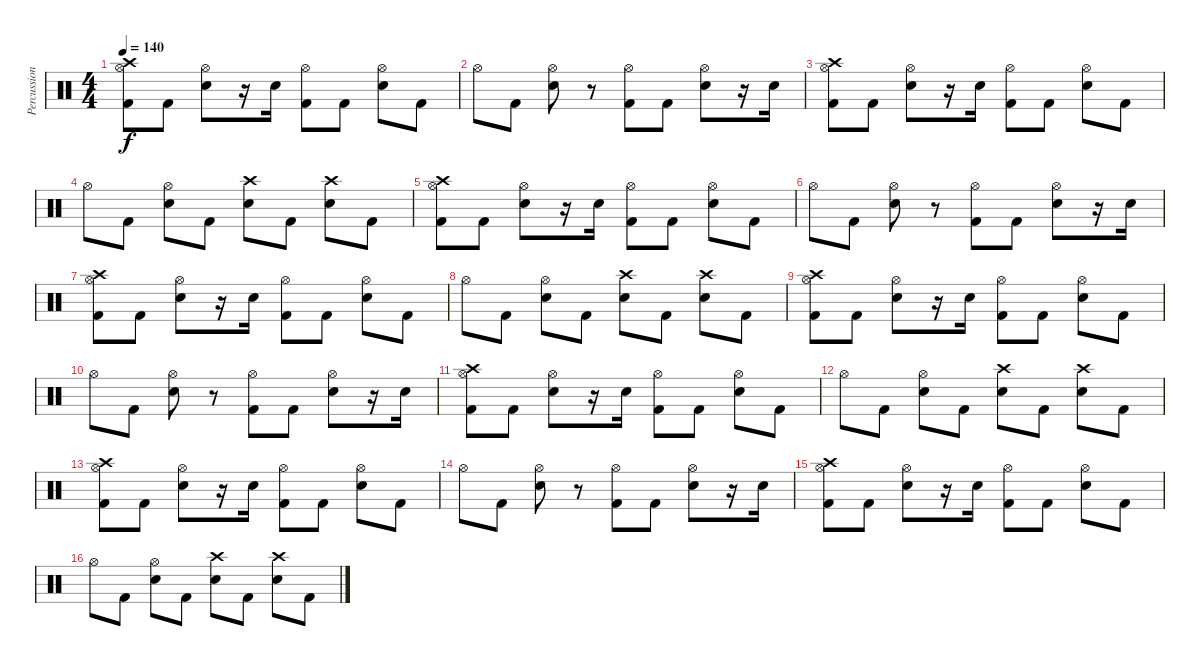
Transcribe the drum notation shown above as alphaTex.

\track ("Percussion" "Percussion") {instrument percussion}
\staff {score}
\articulation defaults
\ts (4 4)
\tempo 140
\clef neutral
\ks c
("Kick (hit) 2" "Hi-Hat (open)" "Crash high (hit)").8{dy f} "Kick (hit) 2".8 ("Snare (hit) 2" "Hi-Hat (open)").8 r.16 "Snare (hit) 2".16 ("Kick (hit) 2" "Hi-Hat (open)").8 "Kick (hit) 2".8 ("Snare (hit) 2" "Hi-Hat (open)").8 "Kick (hit) 2".8 |
"Hi-Hat (open)".8 "Kick (hit) 2".8 ("Snare (hit) 2" "Hi-Hat (open)").8 r.8 ("Kick (hit) 2" "Hi-Hat (open)").8 "Kick (hit) 2".8 ("Snare (hit) 2" "Hi-Hat (open)").8 r.16 "Snare (hit) 2".16 |
("Kick (hit) 2" "Hi-Hat (open)" "Crash high (hit)").8 "Kick (hit) 2".8 ("Snare (hit) 2" "Hi-Hat (open)").8 r.16 "Snare (hit) 2".16 ("Kick (hit) 2" "Hi-Hat (open)").8 "Kick (hit) 2".8 ("Snare (hit) 2" "Hi-Hat (open)").8 "Kick (hit) 2".8 |
"Hi-Hat (open)".8 "Kick (hit) 2".8 ("Snare (hit) 2" "Hi-Hat (open)").8 "Kick (hit) 2".8 ("Snare (hit) 2" "Crash high (hit)").8 "Kick (hit) 2".8 ("Snare (hit) 2" "Crash high (hit)").8 "Kick (hit) 2".8 |
("Kick (hit) 2" "Hi-Hat (open)" "Crash high (hit)").8 "Kick (hit) 2".8 ("Snare (hit) 2" "Hi-Hat (open)").8 r.16 "Snare (hit) 2".16 ("Kick (hit) 2" "Hi-Hat (open)").8 "Kick (hit) 2".8 ("Snare (hit) 2" "Hi-Hat (open)").8 "Kick (hit) 2".8 |
"Hi-Hat (open)".8 "Kick (hit) 2".8 ("Snare (hit) 2" "Hi-Hat (open)").8 r.8 ("Kick (hit) 2" "Hi-Hat (open)").8 "Kick (hit) 2".8 ("Snare (hit) 2" "Hi-Hat (open)").8 r.16 "Snare (hit) 2".16 |
("Kick (hit) 2" "Hi-Hat (open)" "Crash high (hit)").8 "Kick (hit) 2".8 ("Snare (hit) 2" "Hi-Hat (open)").8 r.16 "Snare (hit) 2".16 ("Kick (hit) 2" "Hi-Hat (open)").8 "Kick (hit) 2".8 ("Snare (hit) 2" "Hi-Hat (open)").8 "Kick (hit) 2".8 |
"Hi-Hat (open)".8 "Kick (hit) 2".8 ("Snare (hit) 2" "Hi-Hat (open)").8 "Kick (hit) 2".8 ("Snare (hit) 2" "Crash high (hit)").8 "Kick (hit) 2".8 ("Snare (hit) 2" "Crash high (hit)").8 "Kick (hit) 2".8 |
("Kick (hit) 2" "Hi-Hat (open)" "Crash high (hit)").8 "Kick (hit) 2".8 ("Snare (hit) 2" "Hi-Hat (open)").8 r.16 "Snare (hit) 2".16 ("Kick (hit) 2" "Hi-Hat (open)").8 "Kick (hit) 2".8 ("Snare (hit) 2" "Hi-Hat (open)").8 "Kick (hit) 2".8 |
"Hi-Hat (open)".8 "Kick (hit) 2".8 ("Snare (hit) 2" "Hi-Hat (open)").8 r.8 ("Kick (hit) 2" "Hi-Hat (open)").8 "Kick (hit) 2".8 ("Snare (hit) 2" "Hi-Hat (open)").8 r.16 "Snare (hit) 2".16 |
("Kick (hit) 2" "Hi-Hat (open)" "Crash high (hit)").8 "Kick (hit) 2".8 ("Snare (hit) 2" "Hi-Hat (open)").8 r.16 "Snare (hit) 2".16 ("Kick (hit) 2" "Hi-Hat (open)").8 "Kick (hit) 2".8 ("Snare (hit) 2" "Hi-Hat (open)").8 "Kick (hit) 2".8 |
"Hi-Hat (open)".8 "Kick (hit) 2".8 ("Snare (hit) 2" "Hi-Hat (open)").8 "Kick (hit) 2".8 ("Snare (hit) 2" "Crash high (hit)").8 "Kick (hit) 2".8 ("Snare (hit) 2" "Crash high (hit)").8 "Kick (hit) 2".8 |
("Kick (hit) 2" "Hi-Hat (open)" "Crash high (hit)").8 "Kick (hit) 2".8 ("Snare (hit) 2" "Hi-Hat (open)").8 r.16 "Snare (hit) 2".16 ("Kick (hit) 2" "Hi-Hat (open)").8 "Kick (hit) 2".8 ("Snare (hit) 2" "Hi-Hat (open)").8 "Kick (hit) 2".8 |
"Hi-Hat (open)".8 "Kick (hit) 2".8 ("Snare (hit) 2" "Hi-Hat (open)").8 r.8 ("Kick (hit) 2" "Hi-Hat (open)").8 "Kick (hit) 2".8 ("Snare (hit) 2" "Hi-Hat (open)").8 r.16 "Snare (hit) 2".16 |
("Kick (hit) 2" "Hi-Hat (open)" "Crash high (hit)").8 "Kick (hit) 2".8 ("Snare (hit) 2" "Hi-Hat (open)").8 r.16 "Snare (hit) 2".16 ("Kick (hit) 2" "Hi-Hat (open)").8 "Kick (hit) 2".8 ("Snare (hit) 2" "Hi-Hat (open)").8 "Kick (hit) 2".8 |
"Hi-Hat (open)".8 "Kick (hit) 2".8 ("Snare (hit) 2" "Hi-Hat (open)").8 "Kick (hit) 2".8 ("Snare (hit) 2" "Crash high (hit)").8 "Kick (hit) 2".8 ("Snare (hit) 2" "Crash high (hit)").8 "Kick (hit) 2".8
